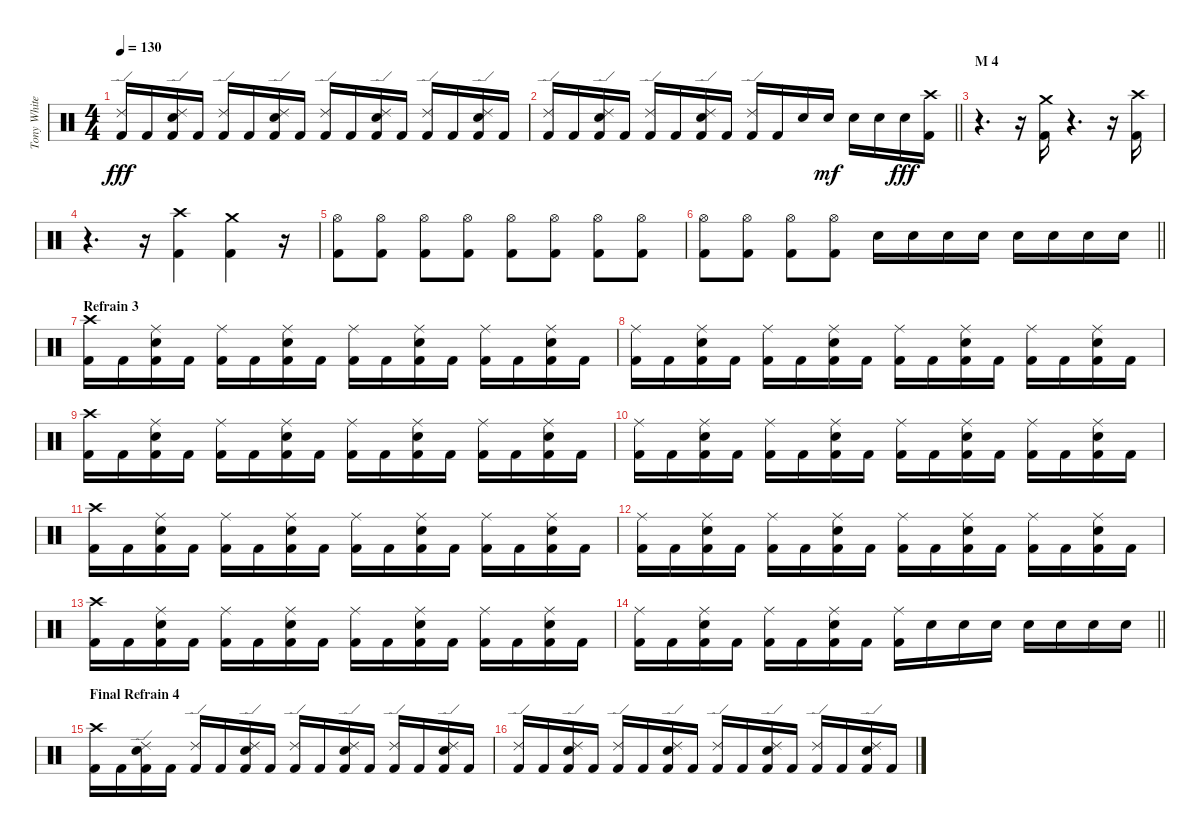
\track ("Tony White" "Tony White") {instrument percussion}
\staff {score}
\articulation defaults
\ts (4 4)
\tempo 130
\clef neutral
\ks c
("Ride (edge) 2" "Kick (hit) 2").16{dy fff} "Kick (hit) 2".16 ("Ride (edge) 2" "Electric Snare (hit)" "Kick (hit) 2").16 "Kick (hit) 2".16 ("Ride (edge) 2" "Kick (hit) 2").16 "Kick (hit) 2".16 ("Ride (edge) 2" "Electric Snare (hit)" "Kick (hit) 2").16 "Kick (hit) 2".16 ("Ride (edge) 2" "Kick (hit) 2").16 "Kick (hit) 2".16 ("Ride (edge) 2" "Electric Snare (hit)" "Kick (hit) 2").16 "Kick (hit) 2".16 ("Ride (edge) 2" "Kick (hit) 2").16 "Kick (hit) 2".16 ("Ride (edge) 2" "Electric Snare (hit)" "Kick (hit) 2").16 "Kick (hit) 2".16 |
\barLineRight lightlight
("Ride (edge) 2" "Kick (hit) 2").16 "Kick (hit) 2".16 ("Ride (edge) 2" "Electric Snare (hit)" "Kick (hit) 2").16 "Kick (hit) 2".16 ("Ride (edge) 2" "Kick (hit) 2").16 "Kick (hit) 2".16 ("Ride (edge) 2" "Electric Snare (hit)" "Kick (hit) 2").16 "Kick (hit) 2".16 ("Ride (edge) 2" "Kick (hit) 2").16 "Kick (hit) 2".16 "Electric Snare (hit)".16 "Electric Snare (hit)".16{dy mf} "Electric Snare (hit)".16 "Electric Snare (hit)".16 "Electric Snare (hit)".16{dy fff} ("Crash high (hit)" "Kick (hit) 2").16 |
\section ("" "M 4")
r.4{d} r.16 ("Crash medium (hit)" "Kick (hit) 2").16 r.4{d} r.16 ("Crash high (hit)" "Kick (hit) 2").16 |
r.4{d} r.16 ("Crash high (hit)" "Kick (hit) 2").4 ("Crash medium (hit)" "Kick (hit) 2").4 r.16 |
("Hi-Hat (open)" "Kick (hit) 2").8 ("Hi-Hat (open)" "Kick (hit) 2").8 ("Hi-Hat (open)" "Kick (hit) 2").8 ("Hi-Hat (open)" "Kick (hit) 2").8 ("Hi-Hat (open)" "Kick (hit) 2").8 ("Hi-Hat (open)" "Kick (hit) 2").8 ("Hi-Hat (open)" "Kick (hit) 2").8 ("Hi-Hat (open)" "Kick (hit) 2").8 |
\barLineRight lightlight
("Hi-Hat (open)" "Kick (hit) 2").8 ("Hi-Hat (open)" "Kick (hit) 2").8 ("Hi-Hat (open)" "Kick (hit) 2").8 ("Hi-Hat (open)" "Kick (hit) 2").8 "Electric Snare (hit)".16 "Electric Snare (hit)".16 "Electric Snare (hit)".16 "Electric Snare (hit)".16 "Electric Snare (hit)".16 "Electric Snare (hit)".16 "Electric Snare (hit)".16 "Electric Snare (hit)".16 |
\section ("" "Refrain 3")
("Crash high (hit)" "Kick (hit) 2").16 "Kick (hit) 2".16 ("Ride (middle)" "Electric Snare (hit)" "Kick (hit) 2").16 "Kick (hit) 2".16 ("Ride (middle)" "Kick (hit) 2").16 "Kick (hit) 2".16 ("Ride (middle)" "Electric Snare (hit)" "Kick (hit) 2").16 "Kick (hit) 2".16 ("Ride (middle)" "Kick (hit) 2").16 "Kick (hit) 2".16 ("Ride (middle)" "Electric Snare (hit)" "Kick (hit) 2").16 "Kick (hit) 2".16 ("Ride (middle)" "Kick (hit) 2").16 "Kick (hit) 2".16 ("Ride (middle)" "Electric Snare (hit)" "Kick (hit) 2").16 "Kick (hit) 2".16 |
("Ride (middle)" "Kick (hit) 2").16 "Kick (hit) 2".16 ("Ride (middle)" "Electric Snare (hit)" "Kick (hit) 2").16 "Kick (hit) 2".16 ("Ride (middle)" "Kick (hit) 2").16 "Kick (hit) 2".16 ("Ride (middle)" "Electric Snare (hit)" "Kick (hit) 2").16 "Kick (hit) 2".16 ("Ride (middle)" "Kick (hit) 2").16 "Kick (hit) 2".16 ("Ride (middle)" "Electric Snare (hit)" "Kick (hit) 2").16 "Kick (hit) 2".16 ("Ride (middle)" "Kick (hit) 2").16 "Kick (hit) 2".16 ("Ride (middle)" "Electric Snare (hit)" "Kick (hit) 2").16 "Kick (hit) 2".16 |
("Crash high (hit)" "Kick (hit) 2").16 "Kick (hit) 2".16 ("Ride (middle)" "Electric Snare (hit)" "Kick (hit) 2").16 "Kick (hit) 2".16 ("Ride (middle)" "Kick (hit) 2").16 "Kick (hit) 2".16 ("Ride (middle)" "Electric Snare (hit)" "Kick (hit) 2").16 "Kick (hit) 2".16 ("Ride (middle)" "Kick (hit) 2").16 "Kick (hit) 2".16 ("Ride (middle)" "Electric Snare (hit)" "Kick (hit) 2").16 "Kick (hit) 2".16 ("Ride (middle)" "Kick (hit) 2").16 "Kick (hit) 2".16 ("Ride (middle)" "Electric Snare (hit)" "Kick (hit) 2").16 "Kick (hit) 2".16 |
("Ride (middle)" "Kick (hit) 2").16 "Kick (hit) 2".16 ("Ride (middle)" "Electric Snare (hit)" "Kick (hit) 2").16 "Kick (hit) 2".16 ("Ride (middle)" "Kick (hit) 2").16 "Kick (hit) 2".16 ("Ride (middle)" "Electric Snare (hit)" "Kick (hit) 2").16 "Kick (hit) 2".16 ("Ride (middle)" "Kick (hit) 2").16 "Kick (hit) 2".16 ("Ride (middle)" "Electric Snare (hit)" "Kick (hit) 2").16 "Kick (hit) 2".16 ("Ride (middle)" "Kick (hit) 2").16 "Kick (hit) 2".16 ("Ride (middle)" "Electric Snare (hit)" "Kick (hit) 2").16 "Kick (hit) 2".16 |
("Crash high (hit)" "Kick (hit) 2").16 "Kick (hit) 2".16 ("Ride (middle)" "Electric Snare (hit)" "Kick (hit) 2").16 "Kick (hit) 2".16 ("Ride (middle)" "Kick (hit) 2").16 "Kick (hit) 2".16 ("Ride (middle)" "Electric Snare (hit)" "Kick (hit) 2").16 "Kick (hit) 2".16 ("Ride (middle)" "Kick (hit) 2").16 "Kick (hit) 2".16 ("Ride (middle)" "Electric Snare (hit)" "Kick (hit) 2").16 "Kick (hit) 2".16 ("Ride (middle)" "Kick (hit) 2").16 "Kick (hit) 2".16 ("Ride (middle)" "Electric Snare (hit)" "Kick (hit) 2").16 "Kick (hit) 2".16 |
("Ride (middle)" "Kick (hit) 2").16 "Kick (hit) 2".16 ("Ride (middle)" "Electric Snare (hit)" "Kick (hit) 2").16 "Kick (hit) 2".16 ("Ride (middle)" "Kick (hit) 2").16 "Kick (hit) 2".16 ("Ride (middle)" "Electric Snare (hit)" "Kick (hit) 2").16 "Kick (hit) 2".16 ("Ride (middle)" "Kick (hit) 2").16 "Kick (hit) 2".16 ("Ride (middle)" "Electric Snare (hit)" "Kick (hit) 2").16 "Kick (hit) 2".16 ("Ride (middle)" "Kick (hit) 2").16 "Kick (hit) 2".16 ("Ride (middle)" "Electric Snare (hit)" "Kick (hit) 2").16 "Kick (hit) 2".16 |
("Crash high (hit)" "Kick (hit) 2").16 "Kick (hit) 2".16 ("Ride (middle)" "Electric Snare (hit)" "Kick (hit) 2").16 "Kick (hit) 2".16 ("Ride (middle)" "Kick (hit) 2").16 "Kick (hit) 2".16 ("Ride (middle)" "Electric Snare (hit)" "Kick (hit) 2").16 "Kick (hit) 2".16 ("Ride (middle)" "Kick (hit) 2").16 "Kick (hit) 2".16 ("Ride (middle)" "Electric Snare (hit)" "Kick (hit) 2").16 "Kick (hit) 2".16 ("Ride (middle)" "Kick (hit) 2").16 "Kick (hit) 2".16 ("Ride (middle)" "Electric Snare (hit)" "Kick (hit) 2").16 "Kick (hit) 2".16 |
\barLineRight lightlight
("Ride (middle)" "Kick (hit) 2").16 "Kick (hit) 2".16 ("Ride (middle)" "Electric Snare (hit)" "Kick (hit) 2").16 "Kick (hit) 2".16 ("Ride (middle)" "Kick (hit) 2").16 "Kick (hit) 2".16 ("Ride (middle)" "Electric Snare (hit)" "Kick (hit) 2").16 "Kick (hit) 2".16 ("Ride (middle)" "Kick (hit) 2").16 "Electric Snare (hit)".16 "Electric Snare (hit)".16 "Electric Snare (hit)".16 "Electric Snare (hit)".16 "Electric Snare (hit)".16 "Electric Snare (hit)".16 "Electric Snare (hit)".16 |
\section ("" "Final Refrain 4")
("Crash high (hit)" "Kick (hit) 2").16 "Kick (hit) 2".16 ("Ride (edge) 2" "Electric Snare (hit)" "Kick (hit) 2").16 "Kick (hit) 2".16 ("Ride (edge) 2" "Kick (hit) 2").16 "Kick (hit) 2".16 ("Ride (edge) 2" "Electric Snare (hit)" "Kick (hit) 2").16 "Kick (hit) 2".16 ("Ride (edge) 2" "Kick (hit) 2").16 "Kick (hit) 2".16 ("Ride (edge) 2" "Electric Snare (hit)" "Kick (hit) 2").16 "Kick (hit) 2".16 ("Ride (edge) 2" "Kick (hit) 2").16 "Kick (hit) 2".16 ("Ride (edge) 2" "Electric Snare (hit)" "Kick (hit) 2").16 "Kick (hit) 2".16 |
("Ride (edge) 2" "Kick (hit) 2").16 "Kick (hit) 2".16 ("Ride (edge) 2" "Electric Snare (hit)" "Kick (hit) 2").16 "Kick (hit) 2".16 ("Ride (edge) 2" "Kick (hit) 2").16 "Kick (hit) 2".16 ("Ride (edge) 2" "Electric Snare (hit)" "Kick (hit) 2").16 "Kick (hit) 2".16 ("Ride (edge) 2" "Kick (hit) 2").16 "Kick (hit) 2".16 ("Ride (edge) 2" "Electric Snare (hit)" "Kick (hit) 2").16 "Kick (hit) 2".16 ("Ride (edge) 2" "Kick (hit) 2").16 "Kick (hit) 2".16 ("Ride (edge) 2" "Electric Snare (hit)" "Kick (hit) 2").16 "Kick (hit) 2".16
